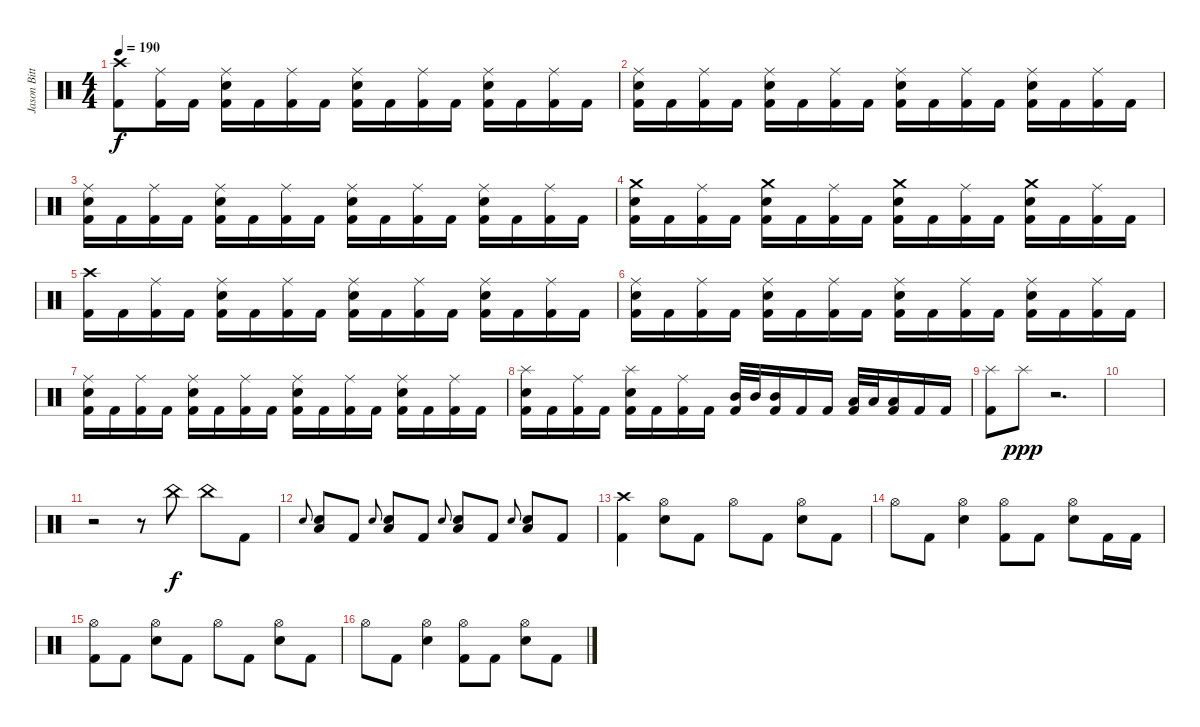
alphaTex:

\track ("Jason Bittner" "Jason Bitt") {instrument percussion}
\staff {score}
\articulation defaults
\ts (4 4)
\tempo 190
\clef neutral
\ks c
("Crash high (hit)" "Kick (hit) 2").8{dy f} ("Ride (middle)" "Kick (hit) 2").16 "Kick (hit) 2".16 ("Ride (middle)" "Electric Snare (hit)" "Kick (hit) 2").16 "Kick (hit) 2".16 ("Ride (middle)" "Kick (hit) 2").16 "Kick (hit) 2".16 ("Ride (middle)" "Electric Snare (hit)" "Kick (hit) 2").16 "Kick (hit) 2".16 ("Ride (middle)" "Kick (hit) 2").16 "Kick (hit) 2".16 ("Ride (middle)" "Electric Snare (hit)" "Kick (hit) 2").16 "Kick (hit) 2".16 ("Ride (middle)" "Kick (hit) 2").16 "Kick (hit) 2".16 |
("Ride (middle)" "Electric Snare (hit)" "Kick (hit) 2").16 "Kick (hit) 2".16 ("Ride (middle)" "Kick (hit) 2").16 "Kick (hit) 2".16 ("Ride (middle)" "Electric Snare (hit)" "Kick (hit) 2").16 "Kick (hit) 2".16 ("Ride (middle)" "Kick (hit) 2").16 "Kick (hit) 2".16 ("Ride (middle)" "Electric Snare (hit)" "Kick (hit) 2").16 "Kick (hit) 2".16 ("Ride (middle)" "Kick (hit) 2").16 "Kick (hit) 2".16 ("Ride (middle)" "Electric Snare (hit)" "Kick (hit) 2").16 "Kick (hit) 2".16 ("Ride (middle)" "Kick (hit) 2").16 "Kick (hit) 2".16 |
("Ride (middle)" "Electric Snare (hit)" "Kick (hit) 2").16 "Kick (hit) 2".16 ("Ride (middle)" "Kick (hit) 2").16 "Kick (hit) 2".16 ("Ride (middle)" "Electric Snare (hit)" "Kick (hit) 2").16 "Kick (hit) 2".16 ("Ride (middle)" "Kick (hit) 2").16 "Kick (hit) 2".16 ("Ride (middle)" "Electric Snare (hit)" "Kick (hit) 2").16 "Kick (hit) 2".16 ("Ride (middle)" "Kick (hit) 2").16 "Kick (hit) 2".16 ("Ride (middle)" "Electric Snare (hit)" "Kick (hit) 2").16 "Kick (hit) 2".16 ("Ride (middle)" "Kick (hit) 2").16 "Kick (hit) 2".16 |
("Crash medium (hit)" "Electric Snare (hit)" "Kick (hit) 2").16 "Kick (hit) 2".16 ("Ride (middle)" "Kick (hit) 2").16 "Kick (hit) 2".16 ("Crash medium (hit)" "Electric Snare (hit)" "Kick (hit) 2").16 "Kick (hit) 2".16 ("Ride (middle)" "Kick (hit) 2").16 "Kick (hit) 2".16 ("Crash medium (hit)" "Electric Snare (hit)" "Kick (hit) 2").16 "Kick (hit) 2".16 ("Ride (middle)" "Kick (hit) 2").16 "Kick (hit) 2".16 ("Crash medium (hit)" "Electric Snare (hit)" "Kick (hit) 2").16 "Kick (hit) 2".16 ("Ride (middle)" "Kick (hit) 2").16 "Kick (hit) 2".16 |
("Crash high (hit)" "Kick (hit) 2").16 "Kick (hit) 2".16 ("Ride (middle)" "Kick (hit) 2").16 "Kick (hit) 2".16 ("Ride (middle)" "Electric Snare (hit)" "Kick (hit) 2").16 "Kick (hit) 2".16 ("Ride (middle)" "Kick (hit) 2").16 "Kick (hit) 2".16 ("Ride (middle)" "Electric Snare (hit)" "Kick (hit) 2").16 "Kick (hit) 2".16 ("Ride (middle)" "Kick (hit) 2").16 "Kick (hit) 2".16 ("Ride (middle)" "Electric Snare (hit)" "Kick (hit) 2").16 "Kick (hit) 2".16 ("Ride (middle)" "Kick (hit) 2").16 "Kick (hit) 2".16 |
("Ride (middle)" "Electric Snare (hit)" "Kick (hit) 2").16 "Kick (hit) 2".16 ("Ride (middle)" "Kick (hit) 2").16 "Kick (hit) 2".16 ("Ride (middle)" "Electric Snare (hit)" "Kick (hit) 2").16 "Kick (hit) 2".16 ("Ride (middle)" "Kick (hit) 2").16 "Kick (hit) 2".16 ("Ride (middle)" "Electric Snare (hit)" "Kick (hit) 2").16 "Kick (hit) 2".16 ("Ride (middle)" "Kick (hit) 2").16 "Kick (hit) 2".16 ("Ride (middle)" "Electric Snare (hit)" "Kick (hit) 2").16 "Kick (hit) 2".16 ("Ride (middle)" "Kick (hit) 2").16 "Kick (hit) 2".16 |
("Ride (middle)" "Electric Snare (hit)" "Kick (hit) 2").16 "Kick (hit) 2".16 ("Ride (middle)" "Kick (hit) 2").16 "Kick (hit) 2".16 ("Ride (middle)" "Electric Snare (hit)" "Kick (hit) 2").16 "Kick (hit) 2".16 ("Ride (middle)" "Kick (hit) 2").16 "Kick (hit) 2".16 ("Ride (middle)" "Electric Snare (hit)" "Kick (hit) 2").16 "Kick (hit) 2".16 ("Ride (middle)" "Kick (hit) 2").16 "Kick (hit) 2".16 ("Ride (middle)" "Electric Snare (hit)" "Kick (hit) 2").16 "Kick (hit) 2".16 ("Ride (middle)" "Kick (hit) 2").16 "Kick (hit) 2".16 |
("Splash (hit)" "Electric Snare (hit)" "Kick (hit) 2").16 "Kick (hit) 2".16 ("Ride (middle)" "Kick (hit) 2").16 "Kick (hit) 2".16 ("Splash (hit)" "Electric Snare (hit)" "Kick (hit) 2").16 "Kick (hit) 2".16 ("Ride (middle)" "Kick (hit) 2").16 "Kick (hit) 2".16 ("Mid Tom (hit)" "Kick (hit) 2").32 "Mid Tom (hit)".32 ("Mid Tom (hit)" "Kick (hit) 2").16 "Kick (hit) 2".16 "Kick (hit) 2".16 ("Low Tom (hit)" "Kick (hit) 2").32 "Low Tom (hit)".32 ("Low Tom (hit)" "Kick (hit) 2").16 "Kick (hit) 2".16 "Kick (hit) 2".16 |
("Splash (hit)" "Kick (hit) 2").8 "Splash (hit)".8{dy ppp} r.2{d} |
|
r.2 r.8 "China (hit)".8{dy f} "China (hit)".8 "Kick (hit) 2".8 |
"Electric Snare (hit)".8{gr onbeat} ("Electric Snare (hit)" "Low Floor Tom (hit)").8 "Kick (hit) 2".8 "Electric Snare (hit)".8{gr onbeat} ("Electric Snare (hit)" "Low Floor Tom (hit)").8 "Kick (hit) 2".8 "Electric Snare (hit)".8{gr onbeat} ("Electric Snare (hit)" "Low Floor Tom (hit)").8 "Kick (hit) 2".8 "Electric Snare (hit)".8{gr onbeat} ("Electric Snare (hit)" "Low Floor Tom (hit)").8 "Kick (hit) 2".8 |
("Crash high (hit)" "Kick (hit) 2").4 ("Hi-Hat (open)" "Electric Snare (hit)").8 "Kick (hit) 2".8 "Hi-Hat (open)".8 "Kick (hit) 2".8 ("Hi-Hat (open)" "Electric Snare (hit)").8 "Kick (hit) 2".8 |
"Hi-Hat (open)".8 "Kick (hit) 2".8 ("Hi-Hat (open)" "Electric Snare (hit)").4 ("Hi-Hat (open)" "Kick (hit) 2").8 "Kick (hit) 2".8 ("Hi-Hat (open)" "Electric Snare (hit)").8 "Kick (hit) 2".16 "Kick (hit) 2".16 |
("Hi-Hat (open)" "Kick (hit) 2").8 "Kick (hit) 2".8 ("Hi-Hat (open)" "Electric Snare (hit)").8 "Kick (hit) 2".8 "Hi-Hat (open)".8 "Kick (hit) 2".8 ("Hi-Hat (open)" "Electric Snare (hit)").8 "Kick (hit) 2".8 |
"Hi-Hat (open)".8 "Kick (hit) 2".8 ("Hi-Hat (open)" "Electric Snare (hit)").4 ("Hi-Hat (open)" "Kick (hit) 2").8 "Kick (hit) 2".8 ("Hi-Hat (open)" "Electric Snare (hit)").8 "Kick (hit) 2".8
